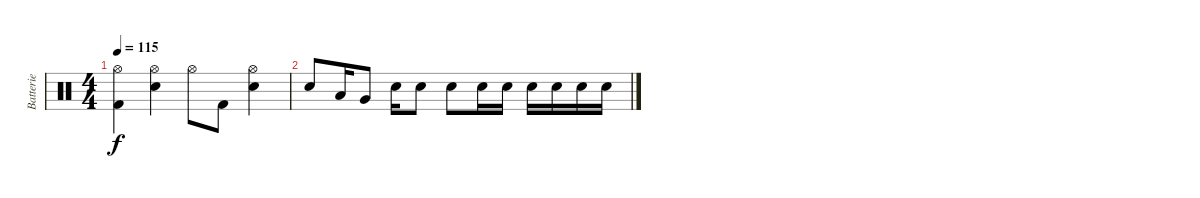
\track ("Batterie" "Batterie") {instrument percussion}
\staff {score}
\articulation defaults
\ts (4 4)
\tempo 115
\clef neutral
\ks c
("Hi-Hat (open)" "Kick (hit) 2").4{dy f} ("Hi-Hat (open)" "Snare (hit) 2").4 "Hi-Hat (open)".8 "Kick (hit) 2".8 ("Hi-Hat (open)" "Snare (hit) 2").4 |
"Snare (hit) 2".8 "Low Tom (hit)".16 "Very Low Tom (hit)".8 "Snare (hit) 2".16 "Snare (hit) 2".8 "Snare (hit) 2".8 "Snare (hit) 2".16 "Snare (hit) 2".16 "Snare (hit) 2".16 "Snare (hit) 2".16 "Snare (hit) 2".16 "Snare (hit) 2".16
